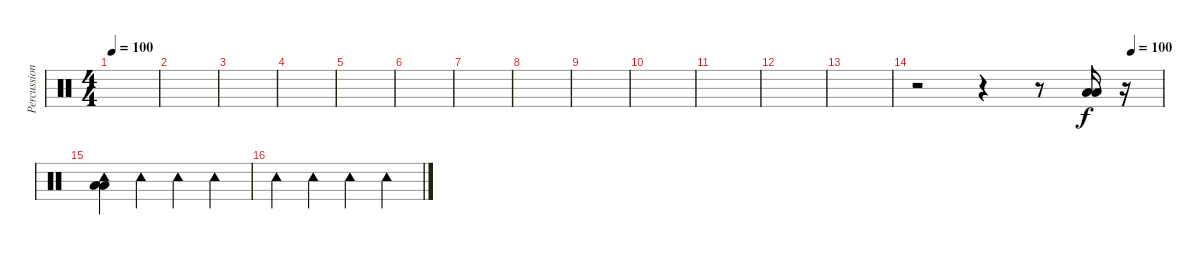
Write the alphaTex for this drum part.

\track ("Percussion" "Percussion") {instrument percussion}
\staff {score}
\articulation defaults
\ts (4 4)
\tempo 100
\clef neutral
\ks c
|
|
|
|
|
|
|
|
|
|
|
|
|
\tempo (100 0.875)
r.2 r.4 r.8 ("Low Floor Tom (hit)" "Low Tom (hit)").16 r.16 |
("Tambourine (hit)" "Low Floor Tom (hit)" "Low Tom (hit)").4 "Tambourine (hit)".4{dy f} "Tambourine (hit)".4 "Tambourine (hit)".4 |
"Tambourine (hit)".4 "Tambourine (hit)".4 "Tambourine (hit)".4 "Tambourine (hit)".4
